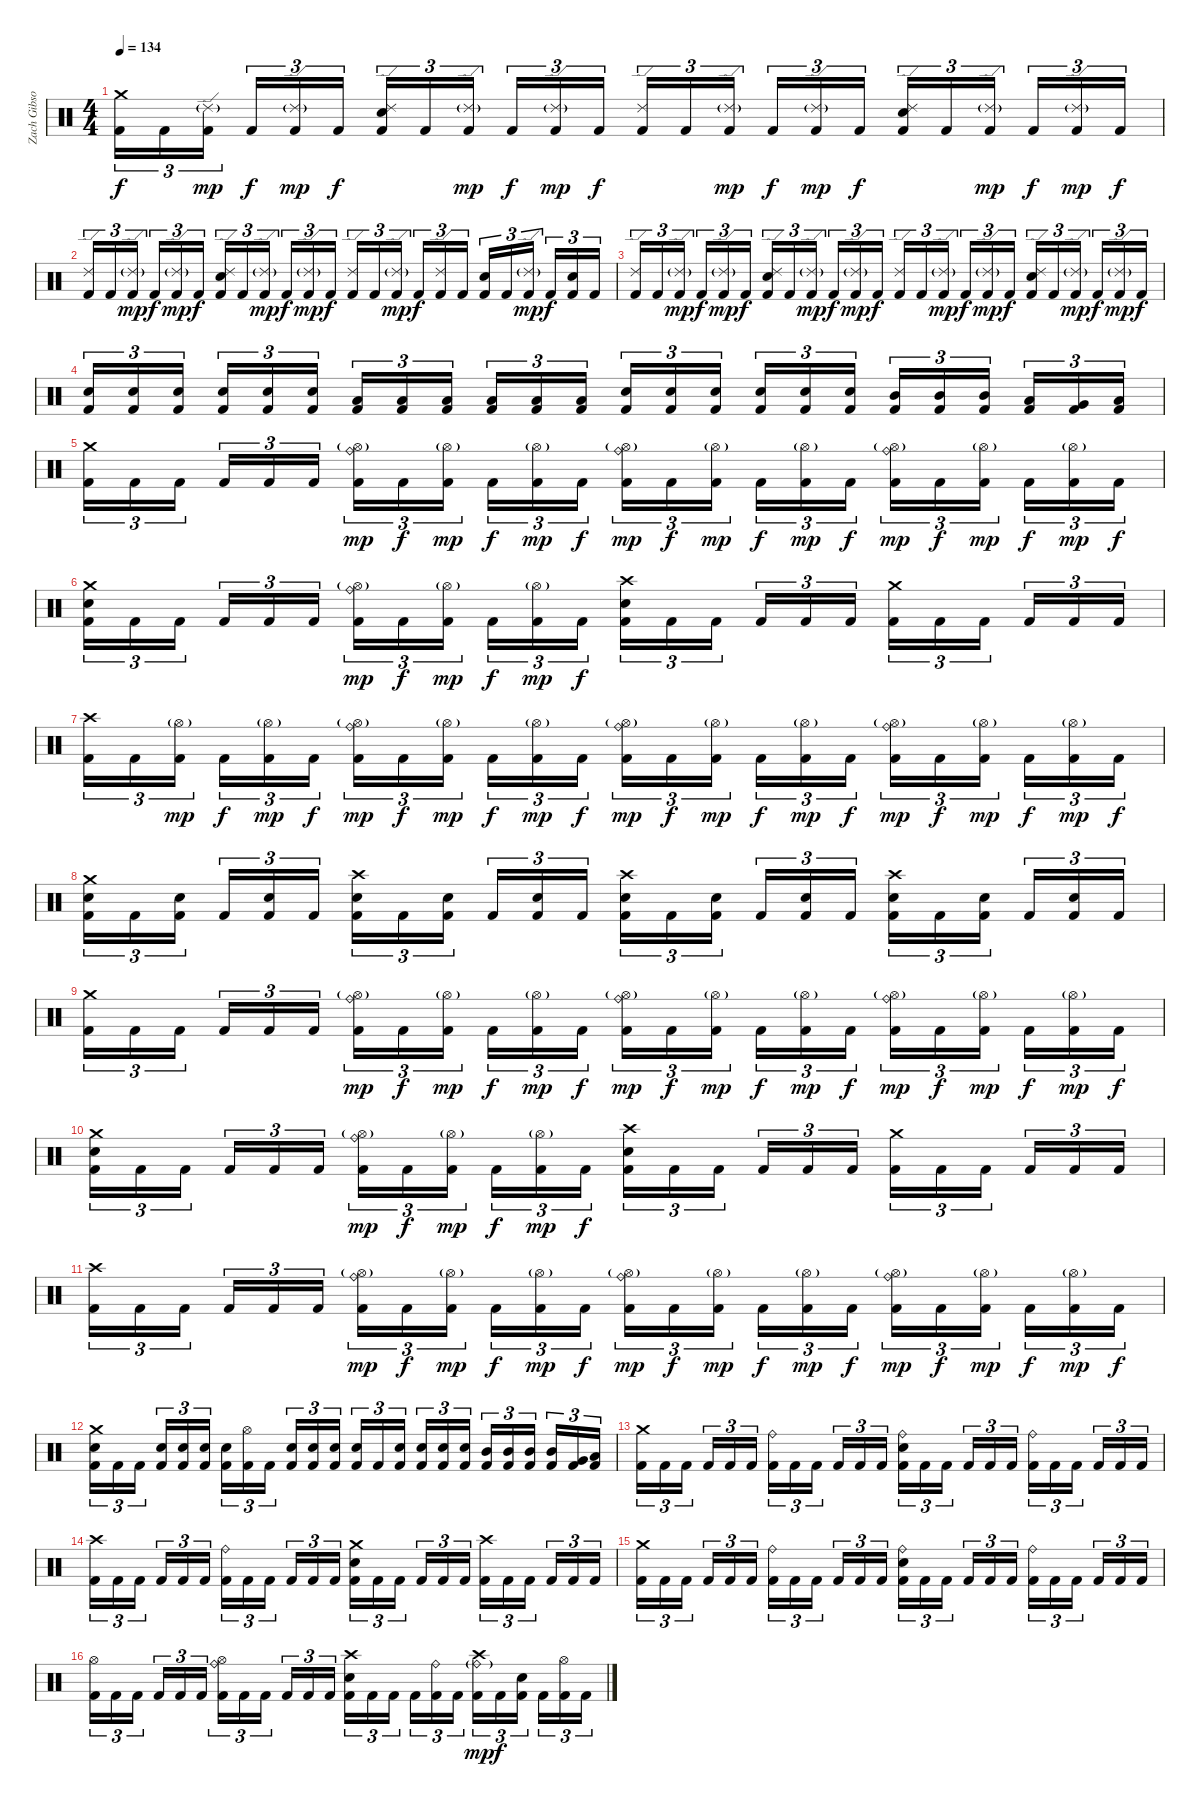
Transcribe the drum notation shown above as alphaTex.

\track ("Zach Gibson (Ex-Drums)" "Zach Gibso") {instrument percussion}
\staff {score}
\articulation defaults
\ts (4 4)
\tempo 134
\clef neutral
\ks c
("Crash medium (hit)" "Kick (hit) 2").16{tu (3 2) dy f} "Kick (hit) 2".16{tu (3 2)} ("Ride (edge) 2"{g} "Kick (hit) 2").16{tu (3 2) dy mp} "Kick (hit) 2".16{tu (3 2) dy f} ("Ride (edge) 2"{g} "Kick (hit) 2").16{tu (3 2) dy mp} "Kick (hit) 2".16{tu (3 2) dy f} ("Ride (edge) 2" "Snare (hit) 2" "Kick (hit) 2").16{tu (3 2)} "Kick (hit) 2".16{tu (3 2)} ("Ride (edge) 2"{g} "Kick (hit) 2").16{tu (3 2) dy mp} "Kick (hit) 2".16{tu (3 2) dy f} ("Ride (edge) 2"{g} "Kick (hit) 2").16{tu (3 2) dy mp} "Kick (hit) 2".16{tu (3 2) dy f} ("Ride (edge) 2" "Kick (hit) 2").16{tu (3 2)} "Kick (hit) 2".16{tu (3 2)} ("Ride (edge) 2"{g} "Kick (hit) 2").16{tu (3 2) dy mp} "Kick (hit) 2".16{tu (3 2) dy f} ("Ride (edge) 2"{g} "Kick (hit) 2").16{tu (3 2) dy mp} "Kick (hit) 2".16{tu (3 2) dy f} ("Snare (hit) 2" "Ride (edge) 2" "Kick (hit) 2").16{tu (3 2)} "Kick (hit) 2".16{tu (3 2)} ("Ride (edge) 2"{g} "Kick (hit) 2").16{tu (3 2) dy mp} "Kick (hit) 2".16{tu (3 2) dy f} ("Ride (edge) 2"{g} "Kick (hit) 2").16{tu (3 2) dy mp} "Kick (hit) 2".16{tu (3 2) dy f} |
("Ride (edge) 2" "Kick (hit) 2").16{tu (3 2)} "Kick (hit) 2".16{tu (3 2)} ("Ride (edge) 2"{g} "Kick (hit) 2").16{tu (3 2) dy mp} "Kick (hit) 2".16{tu (3 2) dy f} ("Ride (edge) 2"{g} "Kick (hit) 2").16{tu (3 2) dy mp} "Kick (hit) 2".16{tu (3 2) dy f} ("Ride (edge) 2" "Snare (hit) 2" "Kick (hit) 2").16{tu (3 2)} "Kick (hit) 2".16{tu (3 2)} ("Ride (edge) 2"{g} "Kick (hit) 2").16{tu (3 2) dy mp} "Kick (hit) 2".16{tu (3 2) dy f} ("Ride (edge) 2"{g} "Kick (hit) 2").16{tu (3 2) dy mp} "Kick (hit) 2".16{tu (3 2) dy f} ("Ride (edge) 2" "Kick (hit) 2").16{tu (3 2)} "Kick (hit) 2".16{tu (3 2)} ("Ride (edge) 2"{g} "Kick (hit) 2").16{tu (3 2) dy mp} "Kick (hit) 2".16{tu (3 2) dy f} ("Ride (edge) 2" "Kick (hit) 2").16{tu (3 2)} "Kick (hit) 2".16{tu (3 2)} ("Snare (hit) 2" "Kick (hit) 2").16{tu (3 2)} "Kick (hit) 2".16{tu (3 2)} ("Ride (edge) 2"{g} "Kick (hit) 2").16{tu (3 2) dy mp} "Kick (hit) 2".16{tu (3 2) dy f} ("Snare (hit) 2" "Kick (hit) 2").16{tu (3 2)} "Kick (hit) 2".16{tu (3 2)} |
("Ride (edge) 2" "Kick (hit) 2").16{tu (3 2)} "Kick (hit) 2".16{tu (3 2)} ("Ride (edge) 2"{g} "Kick (hit) 2").16{tu (3 2) dy mp} "Kick (hit) 2".16{tu (3 2) dy f} ("Ride (edge) 2"{g} "Kick (hit) 2").16{tu (3 2) dy mp} "Kick (hit) 2".16{tu (3 2) dy f} ("Ride (edge) 2" "Snare (hit) 2" "Kick (hit) 2").16{tu (3 2)} "Kick (hit) 2".16{tu (3 2)} ("Ride (edge) 2"{g} "Kick (hit) 2").16{tu (3 2) dy mp} "Kick (hit) 2".16{tu (3 2) dy f} ("Ride (edge) 2"{g} "Kick (hit) 2").16{tu (3 2) dy mp} "Kick (hit) 2".16{tu (3 2) dy f} ("Ride (edge) 2" "Kick (hit) 2").16{tu (3 2)} "Kick (hit) 2".16{tu (3 2)} ("Ride (edge) 2"{g} "Kick (hit) 2").16{tu (3 2) dy mp} "Kick (hit) 2".16{tu (3 2) dy f} ("Ride (edge) 2"{g} "Kick (hit) 2").16{tu (3 2) dy mp} "Kick (hit) 2".16{tu (3 2) dy f} ("Snare (hit) 2" "Ride (edge) 2" "Kick (hit) 2").16{tu (3 2)} "Kick (hit) 2".16{tu (3 2)} ("Ride (edge) 2"{g} "Kick (hit) 2").16{tu (3 2) dy mp} "Kick (hit) 2".16{tu (3 2) dy f} ("Ride (edge) 2"{g} "Kick (hit) 2").16{tu (3 2) dy mp} "Kick (hit) 2".16{tu (3 2) dy f} |
("Snare (hit) 2" "Kick (hit) 2").16{tu (3 2)} ("Snare (hit) 2" "Kick (hit) 2").16{tu (3 2)} ("Snare (hit) 2" "Kick (hit) 2").16{tu (3 2)} ("Snare (hit) 2" "Kick (hit) 2").16{tu (3 2)} ("Snare (hit) 2" "Kick (hit) 2").16{tu (3 2)} ("Snare (hit) 2" "Kick (hit) 2").16{tu (3 2)} ("Low Tom (hit)" "Kick (hit) 2").16{tu (3 2)} ("Low Tom (hit)" "Kick (hit) 2").16{tu (3 2)} ("Low Tom (hit)" "Kick (hit) 2").16{tu (3 2)} ("Low Tom (hit)" "Kick (hit) 2").16{tu (3 2)} ("Low Tom (hit)" "Kick (hit) 2").16{tu (3 2)} ("Low Tom (hit)" "Kick (hit) 2").16{tu (3 2)} ("Snare (hit) 2" "Kick (hit) 2").16{tu (3 2)} ("Snare (hit) 2" "Kick (hit) 2").16{tu (3 2)} ("Snare (hit) 2" "Kick (hit) 2").16{tu (3 2)} ("Snare (hit) 2" "Kick (hit) 2").16{tu (3 2)} ("Snare (hit) 2" "Kick (hit) 2").16{tu (3 2)} ("Snare (hit) 2" "Kick (hit) 2").16{tu (3 2)} ("Mid Tom (hit)" "Kick (hit) 2").16{tu (3 2)} ("Mid Tom (hit)" "Kick (hit) 2").16{tu (3 2)} ("Mid Tom (hit)" "Kick (hit) 2").16{tu (3 2)} ("Low Tom (hit)" "Kick (hit) 2").16{tu (3 2)} ("Very Low Tom (hit)" "Kick (hit) 2").16{tu (3 2)} ("Low Floor Tom (hit)" "Kick (hit) 2").16{tu (3 2)} |
("Crash medium (hit)" "Kick (hit) 2").16{tu (3 2)} "Kick (hit) 2".16{tu (3 2)} "Kick (hit) 2".16{tu (3 2)} "Kick (hit) 2".16{tu (3 2)} "Kick (hit) 2".16{tu (3 2)} "Kick (hit) 2".16{tu (3 2)} ("Ride (bell)" "Hi-Hat (open)"{g} "Kick (hit) 2").16{tu (3 2) dy mp} "Kick (hit) 2".16{tu (3 2) dy f} ("Hi-Hat (open)"{g} "Kick (hit) 2").16{tu (3 2) dy mp} "Kick (hit) 2".16{tu (3 2) dy f} ("Hi-Hat (open)"{g} "Kick (hit) 2").16{tu (3 2) dy mp} "Kick (hit) 2".16{tu (3 2) dy f} ("Ride (bell)" "Hi-Hat (open)"{g} "Kick (hit) 2").16{tu (3 2) dy mp} "Kick (hit) 2".16{tu (3 2) dy f} ("Hi-Hat (open)"{g} "Kick (hit) 2").16{tu (3 2) dy mp} "Kick (hit) 2".16{tu (3 2) dy f} ("Hi-Hat (open)"{g} "Kick (hit) 2").16{tu (3 2) dy mp} "Kick (hit) 2".16{tu (3 2) dy f} ("Ride (bell)" "Hi-Hat (open)"{g} "Kick (hit) 2").16{tu (3 2) dy mp} "Kick (hit) 2".16{tu (3 2) dy f} ("Hi-Hat (open)"{g} "Kick (hit) 2").16{tu (3 2) dy mp} "Kick (hit) 2".16{tu (3 2) dy f} ("Hi-Hat (open)"{g} "Kick (hit) 2").16{tu (3 2) dy mp} "Kick (hit) 2".16{tu (3 2) dy f} |
("Crash medium (hit)" "Snare (hit) 2" "Kick (hit) 2").16{tu (3 2)} "Kick (hit) 2".16{tu (3 2)} "Kick (hit) 2".16{tu (3 2)} "Kick (hit) 2".16{tu (3 2)} "Kick (hit) 2".16{tu (3 2)} "Kick (hit) 2".16{tu (3 2)} ("Ride (bell)" "Hi-Hat (open)"{g} "Kick (hit) 2").16{tu (3 2) dy mp} "Kick (hit) 2".16{tu (3 2) dy f} ("Hi-Hat (open)"{g} "Kick (hit) 2").16{tu (3 2) dy mp} "Kick (hit) 2".16{tu (3 2) dy f} ("Hi-Hat (open)"{g} "Kick (hit) 2").16{tu (3 2) dy mp} "Kick (hit) 2".16{tu (3 2) dy f} ("Crash high (hit)" "Snare (hit) 2" "Kick (hit) 2").16{tu (3 2)} "Kick (hit) 2".16{tu (3 2)} "Kick (hit) 2".16{tu (3 2)} "Kick (hit) 2".16{tu (3 2)} "Kick (hit) 2".16{tu (3 2)} "Kick (hit) 2".16{tu (3 2)} ("Crash medium (hit)" "Kick (hit) 2").16{tu (3 2)} "Kick (hit) 2".16{tu (3 2)} "Kick (hit) 2".16{tu (3 2)} "Kick (hit) 2".16{tu (3 2)} "Kick (hit) 2".16{tu (3 2)} "Kick (hit) 2".16{tu (3 2)} |
("Crash high (hit)" "Kick (hit) 2").16{tu (3 2)} "Kick (hit) 2".16{tu (3 2)} ("Hi-Hat (open)"{g} "Kick (hit) 2").16{tu (3 2) dy mp} "Kick (hit) 2".16{tu (3 2) dy f} ("Hi-Hat (open)"{g} "Kick (hit) 2").16{tu (3 2) dy mp} "Kick (hit) 2".16{tu (3 2) dy f} ("Ride (bell)" "Hi-Hat (open)"{g} "Kick (hit) 2").16{tu (3 2) dy mp} "Kick (hit) 2".16{tu (3 2) dy f} ("Hi-Hat (open)"{g} "Kick (hit) 2").16{tu (3 2) dy mp} "Kick (hit) 2".16{tu (3 2) dy f} ("Hi-Hat (open)"{g} "Kick (hit) 2").16{tu (3 2) dy mp} "Kick (hit) 2".16{tu (3 2) dy f} ("Ride (bell)" "Hi-Hat (open)"{g} "Kick (hit) 2").16{tu (3 2) dy mp} "Kick (hit) 2".16{tu (3 2) dy f} ("Hi-Hat (open)"{g} "Kick (hit) 2").16{tu (3 2) dy mp} "Kick (hit) 2".16{tu (3 2) dy f} ("Hi-Hat (open)"{g} "Kick (hit) 2").16{tu (3 2) dy mp} "Kick (hit) 2".16{tu (3 2) dy f} ("Ride (bell)" "Hi-Hat (open)"{g} "Kick (hit) 2").16{tu (3 2) dy mp} "Kick (hit) 2".16{tu (3 2) dy f} ("Hi-Hat (open)"{g} "Kick (hit) 2").16{tu (3 2) dy mp} "Kick (hit) 2".16{tu (3 2) dy f} ("Hi-Hat (open)"{g} "Kick (hit) 2").16{tu (3 2) dy mp} "Kick (hit) 2".16{tu (3 2) dy f} |
("Snare (hit) 2" "Crash medium (hit)" "Kick (hit) 2").16{tu (3 2)} "Kick (hit) 2".16{tu (3 2)} ("Snare (hit) 2" "Kick (hit) 2").16{tu (3 2)} "Kick (hit) 2".16{tu (3 2)} ("Snare (hit) 2" "Kick (hit) 2").16{tu (3 2)} "Kick (hit) 2".16{tu (3 2)} ("Crash high (hit)" "Snare (hit) 2" "Kick (hit) 2").16{tu (3 2)} "Kick (hit) 2".16{tu (3 2)} ("Snare (hit) 2" "Kick (hit) 2").16{tu (3 2)} "Kick (hit) 2".16{tu (3 2)} ("Snare (hit) 2" "Kick (hit) 2").16{tu (3 2)} "Kick (hit) 2".16{tu (3 2)} ("Snare (hit) 2" "Crash high (hit)" "Kick (hit) 2").16{tu (3 2)} "Kick (hit) 2".16{tu (3 2)} ("Snare (hit) 2" "Kick (hit) 2").16{tu (3 2)} "Kick (hit) 2".16{tu (3 2)} ("Snare (hit) 2" "Kick (hit) 2").16{tu (3 2)} "Kick (hit) 2".16{tu (3 2)} ("Snare (hit) 2" "Crash high (hit)" "Kick (hit) 2").16{tu (3 2)} "Kick (hit) 2".16{tu (3 2)} ("Snare (hit) 2" "Kick (hit) 2").16{tu (3 2)} "Kick (hit) 2".16{tu (3 2)} ("Snare (hit) 2" "Kick (hit) 2").16{tu (3 2)} "Kick (hit) 2".16{tu (3 2)} |
("Crash medium (hit)" "Kick (hit) 2").16{tu (3 2)} "Kick (hit) 2".16{tu (3 2)} "Kick (hit) 2".16{tu (3 2)} "Kick (hit) 2".16{tu (3 2)} "Kick (hit) 2".16{tu (3 2)} "Kick (hit) 2".16{tu (3 2)} ("Ride (bell)" "Hi-Hat (open)"{g} "Kick (hit) 2").16{tu (3 2) dy mp} "Kick (hit) 2".16{tu (3 2) dy f} ("Hi-Hat (open)"{g} "Kick (hit) 2").16{tu (3 2) dy mp} "Kick (hit) 2".16{tu (3 2) dy f} ("Hi-Hat (open)"{g} "Kick (hit) 2").16{tu (3 2) dy mp} "Kick (hit) 2".16{tu (3 2) dy f} ("Ride (bell)" "Hi-Hat (open)"{g} "Kick (hit) 2").16{tu (3 2) dy mp} "Kick (hit) 2".16{tu (3 2) dy f} ("Hi-Hat (open)"{g} "Kick (hit) 2").16{tu (3 2) dy mp} "Kick (hit) 2".16{tu (3 2) dy f} ("Hi-Hat (open)"{g} "Kick (hit) 2").16{tu (3 2) dy mp} "Kick (hit) 2".16{tu (3 2) dy f} ("Ride (bell)" "Hi-Hat (open)"{g} "Kick (hit) 2").16{tu (3 2) dy mp} "Kick (hit) 2".16{tu (3 2) dy f} ("Hi-Hat (open)"{g} "Kick (hit) 2").16{tu (3 2) dy mp} "Kick (hit) 2".16{tu (3 2) dy f} ("Hi-Hat (open)"{g} "Kick (hit) 2").16{tu (3 2) dy mp} "Kick (hit) 2".16{tu (3 2) dy f} |
("Crash medium (hit)" "Snare (hit) 2" "Kick (hit) 2").16{tu (3 2)} "Kick (hit) 2".16{tu (3 2)} "Kick (hit) 2".16{tu (3 2)} "Kick (hit) 2".16{tu (3 2)} "Kick (hit) 2".16{tu (3 2)} "Kick (hit) 2".16{tu (3 2)} ("Ride (bell)" "Hi-Hat (open)"{g} "Kick (hit) 2").16{tu (3 2) dy mp} "Kick (hit) 2".16{tu (3 2) dy f} ("Hi-Hat (open)"{g} "Kick (hit) 2").16{tu (3 2) dy mp} "Kick (hit) 2".16{tu (3 2) dy f} ("Hi-Hat (open)"{g} "Kick (hit) 2").16{tu (3 2) dy mp} "Kick (hit) 2".16{tu (3 2) dy f} ("Crash high (hit)" "Snare (hit) 2" "Kick (hit) 2").16{tu (3 2)} "Kick (hit) 2".16{tu (3 2)} "Kick (hit) 2".16{tu (3 2)} "Kick (hit) 2".16{tu (3 2)} "Kick (hit) 2".16{tu (3 2)} "Kick (hit) 2".16{tu (3 2)} ("Crash medium (hit)" "Kick (hit) 2").16{tu (3 2)} "Kick (hit) 2".16{tu (3 2)} "Kick (hit) 2".16{tu (3 2)} "Kick (hit) 2".16{tu (3 2)} "Kick (hit) 2".16{tu (3 2)} "Kick (hit) 2".16{tu (3 2)} |
("Crash high (hit)" "Kick (hit) 2").16{tu (3 2)} "Kick (hit) 2".16{tu (3 2)} "Kick (hit) 2".16{tu (3 2)} "Kick (hit) 2".16{tu (3 2)} "Kick (hit) 2".16{tu (3 2)} "Kick (hit) 2".16{tu (3 2)} ("Ride (bell)" "Hi-Hat (open)"{g} "Kick (hit) 2").16{tu (3 2) dy mp} "Kick (hit) 2".16{tu (3 2) dy f} ("Hi-Hat (open)"{g} "Kick (hit) 2").16{tu (3 2) dy mp} "Kick (hit) 2".16{tu (3 2) dy f} ("Hi-Hat (open)"{g} "Kick (hit) 2").16{tu (3 2) dy mp} "Kick (hit) 2".16{tu (3 2) dy f} ("Ride (bell)" "Hi-Hat (open)"{g} "Kick (hit) 2").16{tu (3 2) dy mp} "Kick (hit) 2".16{tu (3 2) dy f} ("Hi-Hat (open)"{g} "Kick (hit) 2").16{tu (3 2) dy mp} "Kick (hit) 2".16{tu (3 2) dy f} ("Hi-Hat (open)"{g} "Kick (hit) 2").16{tu (3 2) dy mp} "Kick (hit) 2".16{tu (3 2) dy f} ("Ride (bell)" "Hi-Hat (open)"{g} "Kick (hit) 2").16{tu (3 2) dy mp} "Kick (hit) 2".16{tu (3 2) dy f} ("Hi-Hat (open)"{g} "Kick (hit) 2").16{tu (3 2) dy mp} "Kick (hit) 2".16{tu (3 2) dy f} ("Hi-Hat (open)"{g} "Kick (hit) 2").16{tu (3 2) dy mp} "Kick (hit) 2".16{tu (3 2) dy f} |
("Snare (hit) 2" "Crash medium (hit)" "Kick (hit) 2").16{tu (3 2)} "Kick (hit) 2".16{tu (3 2)} "Kick (hit) 2".16{tu (3 2)} ("Snare (hit) 2" "Kick (hit) 2").16{tu (3 2)} ("Snare (hit) 2" "Kick (hit) 2").16{tu (3 2)} ("Snare (hit) 2" "Kick (hit) 2").16{tu (3 2)} ("Snare (hit) 2" "Kick (hit) 2").16{tu (3 2)} ("Hi-Hat (open)" "Kick (hit) 2").16{tu (3 2)} "Kick (hit) 2".16{tu (3 2)} ("Snare (hit) 2" "Kick (hit) 2").16{tu (3 2)} ("Snare (hit) 2" "Kick (hit) 2").16{tu (3 2)} ("Snare (hit) 2" "Kick (hit) 2").16{tu (3 2)} ("Snare (hit) 2" "Kick (hit) 2").16{tu (3 2)} "Kick (hit) 2".16{tu (3 2)} ("Snare (hit) 2" "Kick (hit) 2").16{tu (3 2)} ("Snare (hit) 2" "Kick (hit) 2").16{tu (3 2)} ("Snare (hit) 2" "Kick (hit) 2").16{tu (3 2)} ("Snare (hit) 2" "Kick (hit) 2").16{tu (3 2)} ("Mid Tom (hit)" "Kick (hit) 2").16{tu (3 2)} ("Mid Tom (hit)" "Kick (hit) 2").16{tu (3 2)} ("Mid Tom (hit)" "Kick (hit) 2").16{tu (3 2)} ("Mid Tom (hit)" "Kick (hit) 2").16{tu (3 2)} ("Very Low Tom (hit)" "Kick (hit) 2").16{tu (3 2)} ("Low Floor Tom (hit)" "Kick (hit) 2").16{tu (3 2)} |
("Crash medium (hit)" "Kick (hit) 2").16{tu (3 2)} "Kick (hit) 2".16{tu (3 2)} "Kick (hit) 2".16{tu (3 2)} "Kick (hit) 2".16{tu (3 2)} "Kick (hit) 2".16{tu (3 2)} "Kick (hit) 2".16{tu (3 2)} ("Ride (bell)" "Kick (hit) 2").16{tu (3 2)} "Kick (hit) 2".16{tu (3 2)} "Kick (hit) 2".16{tu (3 2)} "Kick (hit) 2".16{tu (3 2)} "Kick (hit) 2".16{tu (3 2)} "Kick (hit) 2".16{tu (3 2)} ("Ride (bell)" "Snare (hit) 2" "Kick (hit) 2").16{tu (3 2)} "Kick (hit) 2".16{tu (3 2)} "Kick (hit) 2".16{tu (3 2)} "Kick (hit) 2".16{tu (3 2)} "Kick (hit) 2".16{tu (3 2)} "Kick (hit) 2".16{tu (3 2)} ("Ride (bell)" "Kick (hit) 2").16{tu (3 2)} "Kick (hit) 2".16{tu (3 2)} "Kick (hit) 2".16{tu (3 2)} "Kick (hit) 2".16{tu (3 2)} "Kick (hit) 2".16{tu (3 2)} "Kick (hit) 2".16{tu (3 2)} |
("Crash high (hit)" "Kick (hit) 2").16{tu (3 2)} "Kick (hit) 2".16{tu (3 2)} "Kick (hit) 2".16{tu (3 2)} "Kick (hit) 2".16{tu (3 2)} "Kick (hit) 2".16{tu (3 2)} "Kick (hit) 2".16{tu (3 2)} ("Ride (bell)" "Kick (hit) 2").16{tu (3 2)} "Kick (hit) 2".16{tu (3 2)} "Kick (hit) 2".16{tu (3 2)} "Kick (hit) 2".16{tu (3 2)} "Kick (hit) 2".16{tu (3 2)} "Kick (hit) 2".16{tu (3 2)} ("Crash medium (hit)" "Snare (hit) 2" "Kick (hit) 2").16{tu (3 2)} "Kick (hit) 2".16{tu (3 2)} "Kick (hit) 2".16{tu (3 2)} "Kick (hit) 2".16{tu (3 2)} "Kick (hit) 2".16{tu (3 2)} "Kick (hit) 2".16{tu (3 2)} ("Crash high (hit)" "Kick (hit) 2").16{tu (3 2)} "Kick (hit) 2".16{tu (3 2)} "Kick (hit) 2".16{tu (3 2)} "Kick (hit) 2".16{tu (3 2)} "Kick (hit) 2".16{tu (3 2)} "Kick (hit) 2".16{tu (3 2)} |
("Crash medium (hit)" "Kick (hit) 2").16{tu (3 2)} "Kick (hit) 2".16{tu (3 2)} "Kick (hit) 2".16{tu (3 2)} "Kick (hit) 2".16{tu (3 2)} "Kick (hit) 2".16{tu (3 2)} "Kick (hit) 2".16{tu (3 2)} ("Ride (bell)" "Kick (hit) 2").16{tu (3 2)} "Kick (hit) 2".16{tu (3 2)} "Kick (hit) 2".16{tu (3 2)} "Kick (hit) 2".16{tu (3 2)} "Kick (hit) 2".16{tu (3 2)} "Kick (hit) 2".16{tu (3 2)} ("Ride (bell)" "Snare (hit) 2" "Kick (hit) 2").16{tu (3 2)} "Kick (hit) 2".16{tu (3 2)} "Kick (hit) 2".16{tu (3 2)} "Kick (hit) 2".16{tu (3 2)} "Kick (hit) 2".16{tu (3 2)} "Kick (hit) 2".16{tu (3 2)} ("Ride (bell)" "Kick (hit) 2").16{tu (3 2)} "Kick (hit) 2".16{tu (3 2)} "Kick (hit) 2".16{tu (3 2)} "Kick (hit) 2".16{tu (3 2)} "Kick (hit) 2".16{tu (3 2)} "Kick (hit) 2".16{tu (3 2)} |
("Hi-Hat (open)" "Kick (hit) 2").16{tu (3 2)} "Kick (hit) 2".16{tu (3 2)} "Kick (hit) 2".16{tu (3 2)} "Kick (hit) 2".16{tu (3 2)} "Kick (hit) 2".16{tu (3 2)} "Kick (hit) 2".16{tu (3 2)} ("Hi-Hat (open)" "Ride (bell)" "Kick (hit) 2").16{tu (3 2)} "Kick (hit) 2".16{tu (3 2)} "Kick (hit) 2".16{tu (3 2)} "Kick (hit) 2".16{tu (3 2)} "Kick (hit) 2".16{tu (3 2)} "Kick (hit) 2".16{tu (3 2)} ("Crash high (hit)" "Snare (hit) 2" "Kick (hit) 2").16{tu (3 2)} "Kick (hit) 2".16{tu (3 2)} "Kick (hit) 2".16{tu (3 2)} "Kick (hit) 2".16{tu (3 2)} ("Ride (bell)" "Kick (hit) 2").16{tu (3 2)} "Kick (hit) 2".16{tu (3 2)} ("Ride (bell)"{g} "Crash high (hit)" "Kick (hit) 2").16{tu (3 2) dy mp} "Kick (hit) 2".16{tu (3 2) dy f} ("Snare (hit) 2" "Kick (hit) 2").16{tu (3 2)} "Kick (hit) 2".16{tu (3 2)} ("Hi-Hat (open)" "Kick (hit) 2").16{tu (3 2)} "Kick (hit) 2".16{tu (3 2)}
